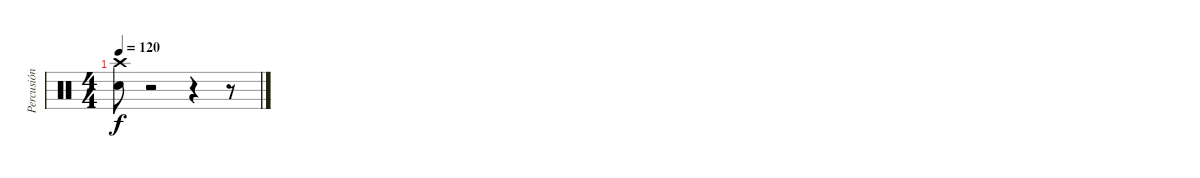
\track ("Percusión" "Percusión") {instrument percussion}
\staff {score}
\articulation defaults
\ts (4 4)
\tempo 120
\clef neutral
\ks c
("Crash high (hit)" "Electric Snare (hit)").8{dy f} r.2 r.4 r.8
